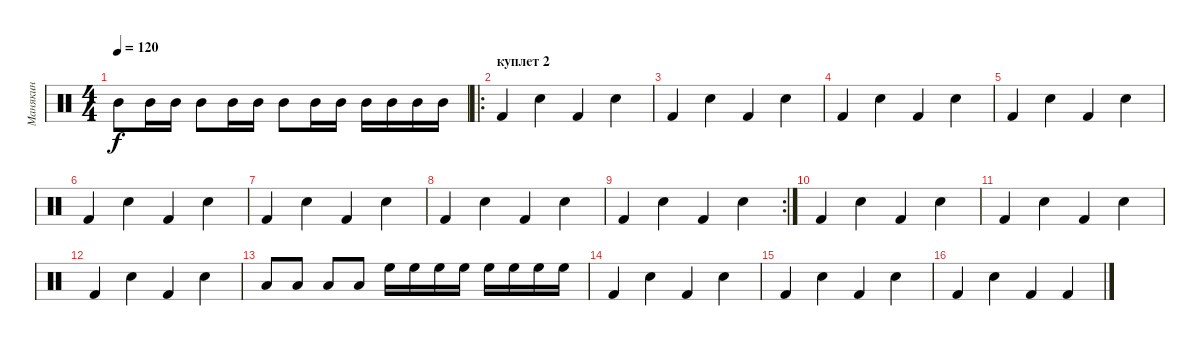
\track ("Манякин" "Манякин") {instrument percussion}
\staff {score}
\articulation defaults
\ts (4 4)
\tempo 120
\clef neutral
\ks c "Mid Tom (hit)".8{dy f} "Mid Tom (hit)".16 "Mid Tom (hit)".16 "Mid Tom (hit)".8 "Mid Tom (hit)".16 "Mid Tom (hit)".16 "Mid Tom (hit)".8 "Mid Tom (hit)".16 "Mid Tom (hit)".16 "Mid Tom (hit)".16 "Mid Tom (hit)".16 "Mid Tom (hit)".16 "Mid Tom (hit)".16
|
\ro
\section ("" "куплет 2")
"Kick (hit) 2".4 "Snare (hit) 2".4 "Kick (hit) 2".4 "Snare (hit) 2".4 |
"Kick (hit) 2".4 "Snare (hit) 2".4 "Kick (hit) 2".4 "Snare (hit) 2".4 |
"Kick (hit) 2".4 "Snare (hit) 2".4 "Kick (hit) 2".4 "Snare (hit) 2".4 |
"Kick (hit) 2".4 "Snare (hit) 2".4 "Kick (hit) 2".4 "Snare (hit) 2".4 |
"Kick (hit) 2".4 "Snare (hit) 2".4 "Kick (hit) 2".4 "Snare (hit) 2".4 |
"Kick (hit) 2".4 "Snare (hit) 2".4 "Kick (hit) 2".4 "Snare (hit) 2".4 |
"Kick (hit) 2".4 "Snare (hit) 2".4 "Kick (hit) 2".4 "Snare (hit) 2".4 |
\rc 2 "Kick (hit) 2".4 "Snare (hit) 2".4 "Kick (hit) 2".4 "Snare (hit) 2".4
|
"Kick (hit) 2".4 "Snare (hit) 2".4 "Kick (hit) 2".4 "Snare (hit) 2".4 |
"Kick (hit) 2".4 "Snare (hit) 2".4 "Kick (hit) 2".4 "Snare (hit) 2".4 |
"Kick (hit) 2".4 "Snare (hit) 2".4 "Kick (hit) 2".4 "Snare (hit) 2".4 |
"Low Tom (hit)".8 "Low Tom (hit)".8 "Low Tom (hit)".8 "Low Tom (hit)".8 "High Floor Tom (hit)".16 "High Floor Tom (hit)".16 "High Floor Tom (hit)".16 "High Floor Tom (hit)".16 "High Floor Tom (hit)".16 "High Floor Tom (hit)".16 "High Floor Tom (hit)".16 "High Floor Tom (hit)".16 |
"Kick (hit) 2".4 "Snare (hit) 2".4 "Kick (hit) 2".4 "Snare (hit) 2".4 |
"Kick (hit) 2".4 "Snare (hit) 2".4 "Kick (hit) 2".4 "Snare (hit) 2".4 |
"Kick (hit) 2".4 "Snare (hit) 2".4 "Kick (hit) 2".4 "Kick (hit) 2".4
